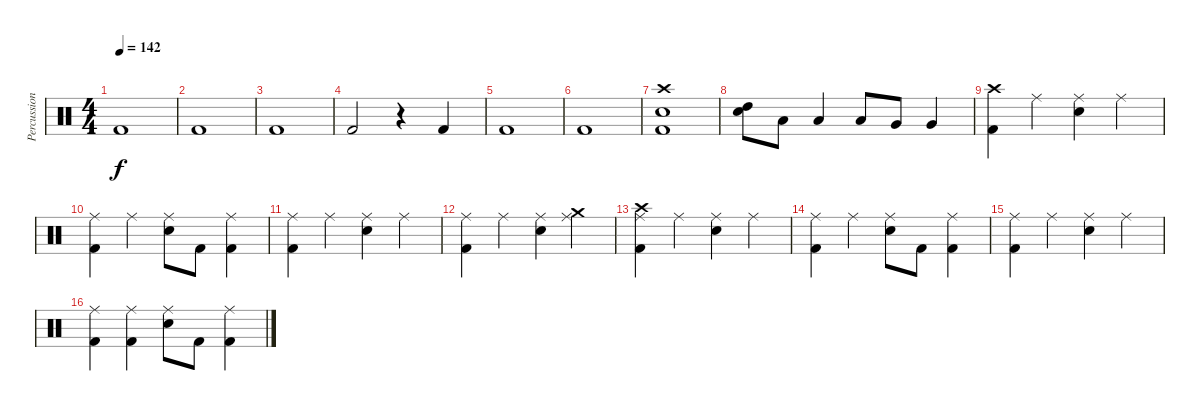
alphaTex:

\track ("Percussion" "Percussion") {instrument percussion}
\staff {score}
\articulation defaults
\ts (4 4)
\tempo 142
\clef neutral
\ks c "Kick (hit) 2".1{dy f}
|
"Kick (hit) 2".1 |
"Kick (hit) 2".1 |
"Kick (hit) 2".2 r.4 "Kick (hit) 2".4 |
"Kick (hit) 2".1 |
"Kick (hit) 2".1 |
("Crash high (hit)" "Electric Snare (hit)" "Kick (hit) 2").1 |
("Snare (hit) 2" "High Tom (hit)").8 "Low Tom (hit)".8 "Low Tom (hit)".4 "Low Tom (hit)".8 "Very Low Tom (hit)".8 "Very Low Tom (hit)".4 |
("Crash high (hit)" "Kick (hit) 2").4 "Ride (middle)".4 ("Ride (middle)" "Snare (hit) 2").4 "Ride (middle)".4 |
("Ride (middle)" "Kick (hit) 2").4 "Ride (middle)".4 ("Ride (middle)" "Snare (hit) 2").8 "Kick (hit) 2".8 ("Ride (middle)" "Kick (hit) 2").4 |
("Ride (middle)" "Kick (hit) 2").4 "Ride (middle)".4 ("Ride (middle)" "Snare (hit) 2").4 "Ride (middle)".4 |
("Ride (middle)" "Kick (hit) 2").4 "Ride (middle)".4 ("Ride (middle)" "Snare (hit) 2").4 ("Ride (middle)" "Crash medium (hit)").4 |
("Ride (middle)" "Crash high (hit)" "Kick (hit) 2").4 "Ride (middle)".4 ("Ride (middle)" "Snare (hit) 2").4 "Ride (middle)".4 |
("Ride (middle)" "Kick (hit) 2").4 "Ride (middle)".4 ("Ride (middle)" "Snare (hit) 2").8 "Kick (hit) 2".8 ("Ride (middle)" "Kick (hit) 2").4 |
("Ride (middle)" "Kick (hit) 2").4 "Ride (middle)".4 ("Ride (middle)" "Snare (hit) 2").4 "Ride (middle)".4 |
("Ride (middle)" "Kick (hit) 2").4 ("Ride (middle)" "Kick (hit) 2").4 ("Ride (middle)" "Snare (hit) 2").8 "Kick (hit) 2".8 ("Ride (middle)" "Kick (hit) 2").4
